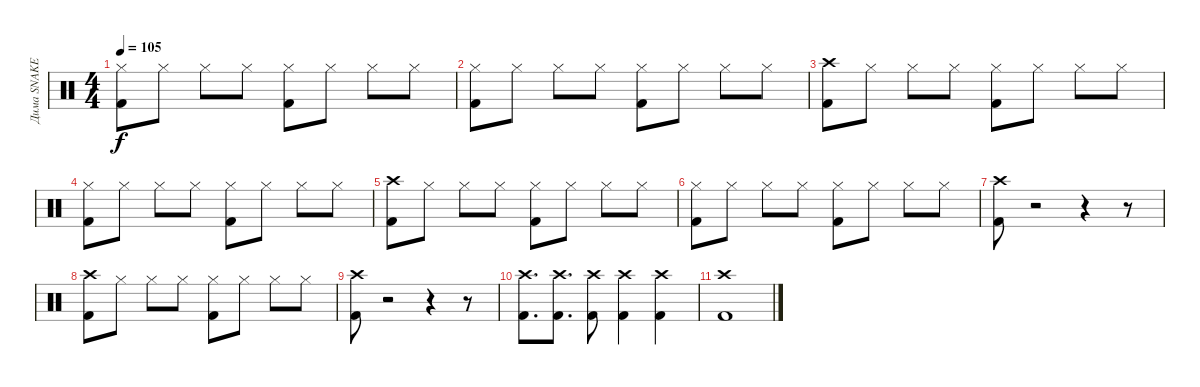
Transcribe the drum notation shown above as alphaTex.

\track ("Дима SNAKE" "Дима SNAKE") {instrument percussion}
\staff {score}
\articulation defaults
\ts (4 4)
\tempo 105
\clef neutral
\ks c
("Hi-Hat (closed)" "Kick (hit) 2").8{dy f} "Hi-Hat (closed)".8 "Hi-Hat (closed)".8 "Hi-Hat (closed)".8 ("Hi-Hat (closed)" "Kick (hit) 2").8 "Hi-Hat (closed)".8 "Hi-Hat (closed)".8 "Hi-Hat (closed)".8 |
("Hi-Hat (closed)" "Kick (hit) 2").8 "Hi-Hat (closed)".8 "Hi-Hat (closed)".8 "Hi-Hat (closed)".8 ("Hi-Hat (closed)" "Kick (hit) 2").8 "Hi-Hat (closed)".8 "Hi-Hat (closed)".8 "Hi-Hat (closed)".8 |
("Crash high (hit)" "Kick (hit) 2").8 "Hi-Hat (closed)".8 "Hi-Hat (closed)".8 "Hi-Hat (closed)".8 ("Hi-Hat (closed)" "Kick (hit) 2").8 "Hi-Hat (closed)".8 "Hi-Hat (closed)".8 "Hi-Hat (closed)".8 |
("Hi-Hat (closed)" "Kick (hit) 2").8 "Hi-Hat (closed)".8 "Hi-Hat (closed)".8 "Hi-Hat (closed)".8 ("Hi-Hat (closed)" "Kick (hit) 2").8 "Hi-Hat (closed)".8 "Hi-Hat (closed)".8 "Hi-Hat (closed)".8 |
("Crash high (hit)" "Kick (hit) 2").8 "Hi-Hat (closed)".8 "Hi-Hat (closed)".8 "Hi-Hat (closed)".8 ("Hi-Hat (closed)" "Kick (hit) 2").8 "Hi-Hat (closed)".8 "Hi-Hat (closed)".8 "Hi-Hat (closed)".8 |
("Hi-Hat (closed)" "Kick (hit) 2").8 "Hi-Hat (closed)".8 "Hi-Hat (closed)".8 "Hi-Hat (closed)".8 ("Hi-Hat (closed)" "Kick (hit) 2").8 "Hi-Hat (closed)".8 "Hi-Hat (closed)".8 "Hi-Hat (closed)".8 |
("Crash high (hit)" "Kick (hit) 2").8 r.2 r.4 r.8 |
("Crash high (hit)" "Kick (hit) 2").8 "Hi-Hat (closed)".8 "Hi-Hat (closed)".8 "Hi-Hat (closed)".8 ("Hi-Hat (closed)" "Kick (hit) 2").8 "Hi-Hat (closed)".8 "Hi-Hat (closed)".8 "Hi-Hat (closed)".8 |
("Crash high (hit)" "Kick (hit) 2").8 r.2 r.4 r.8 |
("Crash high (hit)" "Kick (hit) 2").8{d} ("Crash high (hit)" "Kick (hit) 2").8{d} ("Crash high (hit)" "Kick (hit) 2").8 ("Crash high (hit)" "Kick (hit) 2").4 ("Crash high (hit)" "Kick (hit) 2").4 |
("Crash high (hit)" "Kick (hit) 2").1
